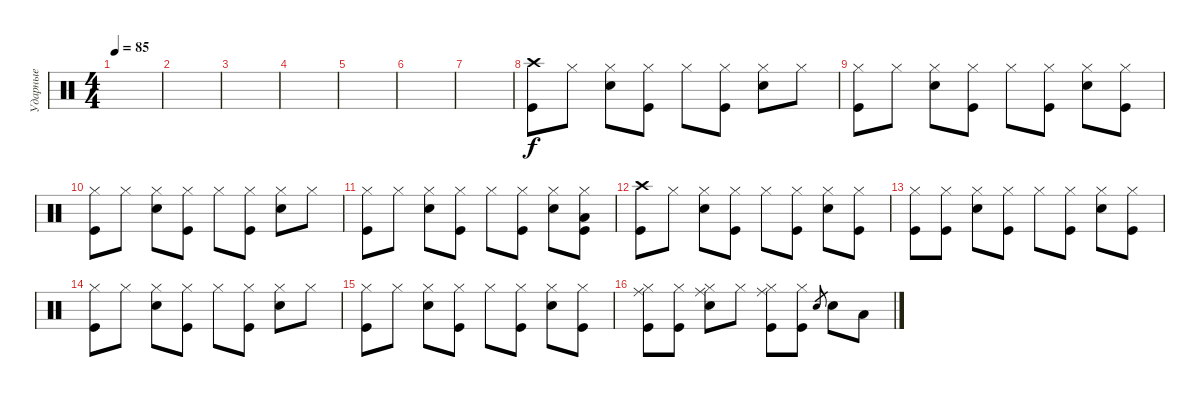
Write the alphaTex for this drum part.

\track ("Ударные" "Ударные") {instrument percussion}
\staff {score}
\articulation defaults
\ts (4 4)
\tempo 85
\clef neutral
\ks c
|
|
|
|
|
|
|
("Crash high (hit)" "Kick (hit)").8 "Hi-Hat (closed)".8 ("Hi-Hat (closed)" "Electric Snare (hit)").8 ("Hi-Hat (closed)" "Kick (hit)").8 "Hi-Hat (closed)".8 ("Hi-Hat (closed)" "Kick (hit)").8 ("Hi-Hat (closed)" "Electric Snare (hit)").8 "Hi-Hat (closed)".8 |
("Hi-Hat (closed)" "Kick (hit)").8 "Hi-Hat (closed)".8 ("Hi-Hat (closed)" "Electric Snare (hit)").8 ("Hi-Hat (closed)" "Kick (hit)").8 "Hi-Hat (closed)".8 ("Hi-Hat (closed)" "Kick (hit)").8 ("Hi-Hat (closed)" "Electric Snare (hit)").8 ("Hi-Hat (closed)" "Kick (hit)").8 |
("Hi-Hat (closed)" "Kick (hit)").8 "Hi-Hat (closed)".8 ("Hi-Hat (closed)" "Electric Snare (hit)").8 ("Hi-Hat (closed)" "Kick (hit)").8 "Hi-Hat (closed)".8 ("Hi-Hat (closed)" "Kick (hit)").8 ("Hi-Hat (closed)" "Electric Snare (hit)").8 "Hi-Hat (closed)".8 |
("Hi-Hat (closed)" "Kick (hit)").8 "Hi-Hat (closed)".8 ("Hi-Hat (closed)" "Electric Snare (hit)").8 ("Hi-Hat (closed)" "Kick (hit)").8 "Hi-Hat (closed)".8 ("Hi-Hat (closed)" "Kick (hit)").8 ("Hi-Hat (closed)" "Electric Snare (hit)").8 ("Hi-Hat (closed)" "Low Floor Tom (hit)" "Kick (hit)").8 |
("Crash high (hit)" "Kick (hit)").8 "Hi-Hat (closed)".8 ("Hi-Hat (closed)" "Electric Snare (hit)").8 ("Hi-Hat (closed)" "Kick (hit)").8 "Hi-Hat (closed)".8 ("Hi-Hat (closed)" "Kick (hit)").8 ("Hi-Hat (closed)" "Electric Snare (hit)").8 ("Hi-Hat (closed)" "Kick (hit)").8 |
("Hi-Hat (closed)" "Kick (hit)").8 ("Hi-Hat (closed)" "Kick (hit)").8 ("Hi-Hat (closed)" "Electric Snare (hit)").8 ("Hi-Hat (closed)" "Kick (hit)").8 "Hi-Hat (closed)".8 ("Hi-Hat (closed)" "Kick (hit)").8 ("Hi-Hat (closed)" "Electric Snare (hit)").8 ("Hi-Hat (closed)" "Kick (hit)").8 |
("Hi-Hat (closed)" "Kick (hit)").8 "Hi-Hat (closed)".8 ("Hi-Hat (closed)" "Electric Snare (hit)").8 ("Hi-Hat (closed)" "Kick (hit)").8 "Hi-Hat (closed)".8 ("Hi-Hat (closed)" "Kick (hit)").8 ("Hi-Hat (closed)" "Electric Snare (hit)").8 "Hi-Hat (closed)".8 |
("Hi-Hat (closed)" "Kick (hit)").8 "Hi-Hat (closed)".8 ("Hi-Hat (closed)" "Electric Snare (hit)").8 ("Hi-Hat (closed)" "Kick (hit)").8 "Hi-Hat (closed)".8 ("Hi-Hat (closed)" "Kick (hit)").8 ("Hi-Hat (closed)" "Electric Snare (hit)").8 ("Hi-Hat (closed)" "Kick (hit)").8 |
("Ride (middle)" "Hi-Hat (closed)" "Kick (hit)").8 ("Hi-Hat (closed)" "Kick (hit)").8 ("Ride (middle)" "Hi-Hat (closed)" "Electric Snare (hit)").8 "Hi-Hat (closed)".8 ("Ride (middle)" "Hi-Hat (closed)" "Kick (hit)").8 ("Hi-Hat (closed)" "Kick (hit)").8 "Electric Snare (hit)".8{gr} "Electric Snare (hit)".8 "Low Tom (hit)".8
